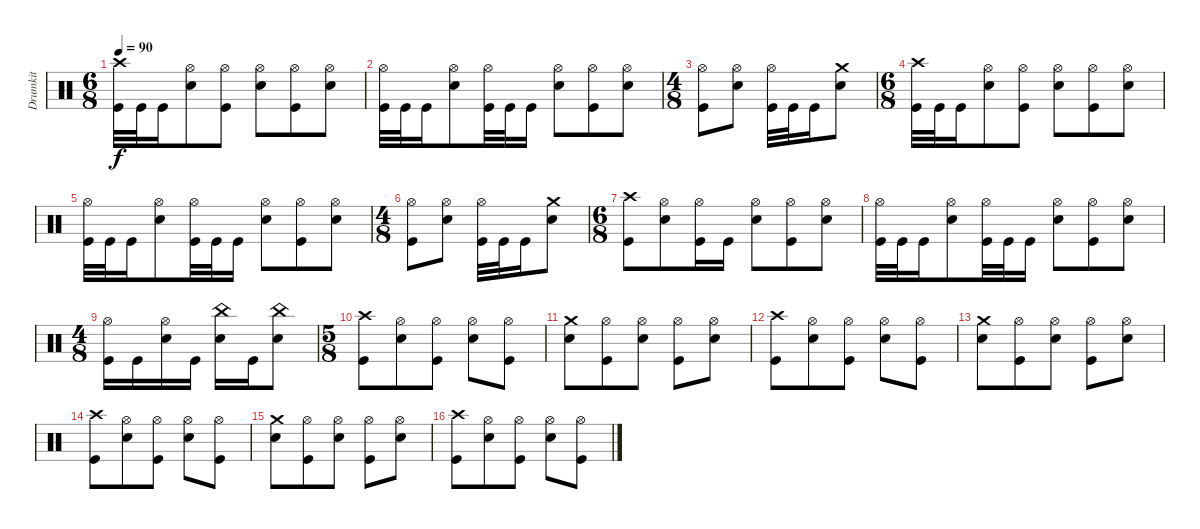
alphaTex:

\track ("Drumkit" "Drumkit") {instrument percussion}
\staff {score}
\articulation defaults
\ts (6 8)
\tempo 90
\clef neutral
\ks c
("Crash high (hit)" "Kick (hit)").32{dy f} "Kick (hit)".32 "Kick (hit)".16 ("Hi-Hat (open)" "Snare (hit) 2").8 ("Hi-Hat (open)" "Kick (hit)").8 ("Hi-Hat (open)" "Snare (hit) 2").8 ("Hi-Hat (open)" "Kick (hit)").8 ("Hi-Hat (open)" "Snare (hit) 2").8 |
("Hi-Hat (open)" "Kick (hit)").32 "Kick (hit)".32 "Kick (hit)".16 ("Hi-Hat (open)" "Snare (hit) 2").8 ("Hi-Hat (open)" "Kick (hit)").32 "Kick (hit)".32 "Kick (hit)".16 ("Hi-Hat (open)" "Snare (hit) 2").8 ("Hi-Hat (open)" "Kick (hit)").8 ("Hi-Hat (open)" "Snare (hit) 2").8 |
\ts (4 8)
("Hi-Hat (open)" "Kick (hit)").8 ("Hi-Hat (open)" "Snare (hit) 2").8 ("Hi-Hat (open)" "Kick (hit)").32 "Kick (hit)".32 "Kick (hit)".16 ("Crash medium (hit)" "Snare (hit) 2").8 |
\ts (6 8)
("Crash high (hit)" "Kick (hit)").32 "Kick (hit)".32 "Kick (hit)".16 ("Hi-Hat (open)" "Snare (hit) 2").8 ("Hi-Hat (open)" "Kick (hit)").8 ("Hi-Hat (open)" "Snare (hit) 2").8 ("Hi-Hat (open)" "Kick (hit)").8 ("Hi-Hat (open)" "Snare (hit) 2").8 |
("Hi-Hat (open)" "Kick (hit)").32 "Kick (hit)".32 "Kick (hit)".16 ("Hi-Hat (open)" "Snare (hit) 2").8 ("Hi-Hat (open)" "Kick (hit)").32 "Kick (hit)".32 "Kick (hit)".16 ("Hi-Hat (open)" "Snare (hit) 2").8 ("Hi-Hat (open)" "Kick (hit)").8 ("Hi-Hat (open)" "Snare (hit) 2").8 |
\ts (4 8)
("Hi-Hat (open)" "Kick (hit)").8 ("Hi-Hat (open)" "Snare (hit) 2").8 ("Hi-Hat (open)" "Kick (hit)").32 "Kick (hit)".32 "Kick (hit)".16 ("Crash medium (hit)" "Snare (hit) 2").8 |
\ts (6 8)
("Crash high (hit)" "Kick (hit)").8 ("Hi-Hat (open)" "Snare (hit) 2").8 ("Hi-Hat (open)" "Kick (hit)").16 "Kick (hit)".16 ("Hi-Hat (open)" "Snare (hit) 2").8 ("Hi-Hat (open)" "Kick (hit)").8 ("Hi-Hat (open)" "Snare (hit) 2").8 |
("Hi-Hat (open)" "Kick (hit)").32 "Kick (hit)".32 "Kick (hit)".16 ("Hi-Hat (open)" "Snare (hit) 2").8 ("Hi-Hat (open)" "Kick (hit)").32 "Kick (hit)".32 "Kick (hit)".16 ("Hi-Hat (open)" "Snare (hit) 2").8 ("Hi-Hat (open)" "Kick (hit)").8 ("Hi-Hat (open)" "Snare (hit) 2").8 |
\ts (4 8)
("Hi-Hat (open)" "Kick (hit)").16 "Kick (hit)".16 ("Hi-Hat (open)" "Snare (hit) 2").16 "Kick (hit)".16 ("China (hit)" "Snare (hit) 2").16 "Kick (hit)".16 ("China (hit)" "Snare (hit) 2").8 |
\ts (5 8)
("Crash high (hit)" "Kick (hit)").8 ("Hi-Hat (open)" "Snare (hit) 2").8 ("Hi-Hat (open)" "Kick (hit)").8 ("Hi-Hat (open)" "Snare (hit) 2").8 ("Hi-Hat (open)" "Kick (hit)").8 |
("Crash medium (hit)" "Snare (hit) 2").8 ("Hi-Hat (open)" "Kick (hit)").8 ("Hi-Hat (open)" "Snare (hit) 2").8 ("Hi-Hat (open)" "Kick (hit)").8 ("Hi-Hat (open)" "Snare (hit) 2").8 |
("Crash high (hit)" "Kick (hit)").8 ("Hi-Hat (open)" "Snare (hit) 2").8 ("Hi-Hat (open)" "Kick (hit)").8 ("Hi-Hat (open)" "Snare (hit) 2").8 ("Hi-Hat (open)" "Kick (hit)").8 |
("Crash medium (hit)" "Snare (hit) 2").8 ("Hi-Hat (open)" "Kick (hit)").8 ("Hi-Hat (open)" "Snare (hit) 2").8 ("Hi-Hat (open)" "Kick (hit)").8 ("Hi-Hat (open)" "Snare (hit) 2").8 |
("Crash high (hit)" "Kick (hit)").8 ("Hi-Hat (open)" "Snare (hit) 2").8 ("Hi-Hat (open)" "Kick (hit)").8 ("Hi-Hat (open)" "Snare (hit) 2").8 ("Hi-Hat (open)" "Kick (hit)").8 |
("Crash medium (hit)" "Snare (hit) 2").8 ("Hi-Hat (open)" "Kick (hit)").8 ("Hi-Hat (open)" "Snare (hit) 2").8 ("Hi-Hat (open)" "Kick (hit)").8 ("Hi-Hat (open)" "Snare (hit) 2").8 |
("Crash high (hit)" "Kick (hit)").8 ("Hi-Hat (open)" "Snare (hit) 2").8 ("Hi-Hat (open)" "Kick (hit)").8 ("Hi-Hat (open)" "Snare (hit) 2").8 ("Hi-Hat (open)" "Kick (hit)").8
